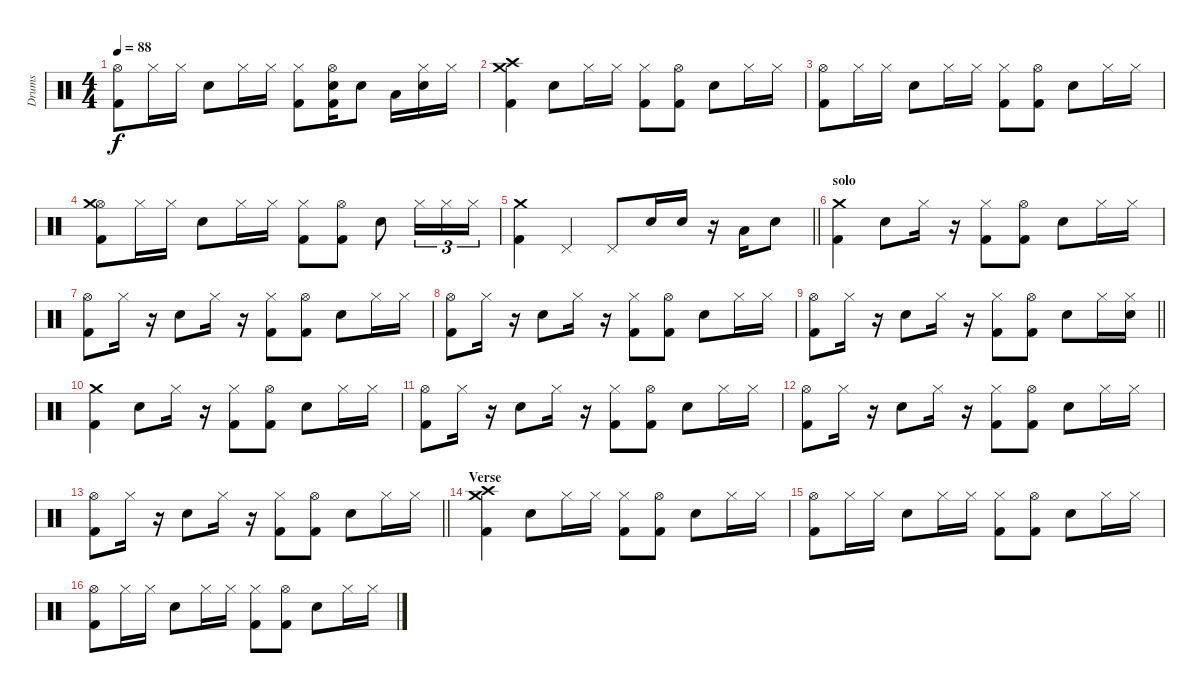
\track ("Drums" "Drums") {instrument percussion}
\staff {score}
\articulation defaults
\ts (4 4)
\tempo 88
\clef neutral
\ks c
("Hi-Hat (open)" "Kick (hit) 2").8{dy f} "Hi-Hat (closed)".16 "Hi-Hat (closed)".16 "Electric Snare (hit)".8 "Hi-Hat (closed)".16 "Hi-Hat (closed)".16 ("Hi-Hat (closed)" "Kick (hit) 2").8 ("Hi-Hat (open)" "Electric Snare (hit)" "Kick (hit) 2").16 "Electric Snare (hit)".8 "Low Tom (hit)".16 ("Hi-Hat (closed)" "Electric Snare (hit)").16 "Hi-Hat (closed)".16 |
("Crash medium (hit)" "Crash high (hit)" "Kick (hit) 2").4 "Electric Snare (hit)".8 "Hi-Hat (closed)".16 "Hi-Hat (closed)".16 ("Hi-Hat (closed)" "Kick (hit) 2").8 ("Hi-Hat (open)" "Kick (hit) 2").8 "Electric Snare (hit)".8 "Hi-Hat (closed)".16 "Hi-Hat (closed)".16 |
("Hi-Hat (open)" "Kick (hit) 2").8 "Hi-Hat (closed)".16 "Hi-Hat (closed)".16 "Electric Snare (hit)".8 "Hi-Hat (closed)".16 "Hi-Hat (closed)".16 ("Hi-Hat (closed)" "Kick (hit) 2").8 ("Hi-Hat (open)" "Kick (hit) 2").8 "Electric Snare (hit)".8 "Hi-Hat (closed)".16 "Hi-Hat (closed)".16 |
("Hi-Hat (open)" "Crash medium (hit)" "Kick (hit) 2").8 "Hi-Hat (closed)".16 "Hi-Hat (closed)".16 "Electric Snare (hit)".8 "Hi-Hat (closed)".16 "Hi-Hat (closed)".16 ("Hi-Hat (closed)" "Kick (hit) 2").8 ("Hi-Hat (open)" "Kick (hit) 2").8 "Electric Snare (hit)".8 "Hi-Hat (closed)".16{tu (3 2)} "Hi-Hat (closed)".16{tu (3 2)} "Hi-Hat (closed)".16{tu (3 2)} |
\barLineRight lightlight
("Crash medium (hit)" "Kick (hit) 2").4 "Pedal Hi-Hat (hit)".4 "Pedal Hi-Hat (hit)".8 "Electric Snare (hit)".16 "Electric Snare (hit)".16 r.16 "Low Tom (hit)".16 "Electric Snare (hit)".8 |
\section ("" "solo")
("Crash medium (hit)" "Kick (hit) 2").4 "Electric Snare (hit)".8 "Hi-Hat (closed)".16 r.16 ("Hi-Hat (closed)" "Kick (hit) 2").8 ("Hi-Hat (open)" "Kick (hit) 2").8 "Electric Snare (hit)".8 "Hi-Hat (closed)".16 "Hi-Hat (closed)".16 |
("Hi-Hat (open)" "Kick (hit) 2").8 "Hi-Hat (closed)".16 r.16 "Electric Snare (hit)".8 "Hi-Hat (closed)".16 r.16 ("Hi-Hat (closed)" "Kick (hit) 2").8 ("Hi-Hat (open)" "Kick (hit) 2").8 "Electric Snare (hit)".8 "Hi-Hat (closed)".16 "Hi-Hat (closed)".16 |
("Hi-Hat (open)" "Kick (hit) 2").8 "Hi-Hat (closed)".16 r.16 "Electric Snare (hit)".8 "Hi-Hat (closed)".16 r.16 ("Hi-Hat (closed)" "Kick (hit) 2").8 ("Hi-Hat (open)" "Kick (hit) 2").8 "Electric Snare (hit)".8 "Hi-Hat (closed)".16 "Hi-Hat (closed)".16 |
\barLineRight lightlight
("Hi-Hat (open)" "Kick (hit) 2").8 "Hi-Hat (closed)".16 r.16 "Electric Snare (hit)".8 "Hi-Hat (closed)".16 r.16 ("Hi-Hat (closed)" "Kick (hit) 2").8 ("Hi-Hat (open)" "Kick (hit) 2").8 "Electric Snare (hit)".8 "Hi-Hat (closed)".16 ("Hi-Hat (closed)" "Electric Snare (hit)").16 |
("Crash medium (hit)" "Kick (hit) 2").4 "Electric Snare (hit)".8 "Hi-Hat (closed)".16 r.16 ("Hi-Hat (closed)" "Kick (hit) 2").8 ("Hi-Hat (open)" "Kick (hit) 2").8 "Electric Snare (hit)".8 "Hi-Hat (closed)".16 "Hi-Hat (closed)".16 |
("Hi-Hat (open)" "Kick (hit) 2").8 "Hi-Hat (closed)".16 r.16 "Electric Snare (hit)".8 "Hi-Hat (closed)".16 r.16 ("Hi-Hat (closed)" "Kick (hit) 2").8 ("Hi-Hat (open)" "Kick (hit) 2").8 "Electric Snare (hit)".8 "Hi-Hat (closed)".16 "Hi-Hat (closed)".16 |
("Hi-Hat (open)" "Kick (hit) 2").8 "Hi-Hat (closed)".16 r.16 "Electric Snare (hit)".8 "Hi-Hat (closed)".16 r.16 ("Hi-Hat (closed)" "Kick (hit) 2").8 ("Hi-Hat (open)" "Kick (hit) 2").8 "Electric Snare (hit)".8 "Hi-Hat (closed)".16 "Hi-Hat (closed)".16 |
\barLineRight lightlight
("Hi-Hat (open)" "Kick (hit) 2").8 "Hi-Hat (closed)".16 r.16 "Electric Snare (hit)".8 "Hi-Hat (closed)".16 r.16 ("Hi-Hat (closed)" "Kick (hit) 2").8 ("Hi-Hat (open)" "Kick (hit) 2").8 "Electric Snare (hit)".8 "Hi-Hat (closed)".16 "Hi-Hat (closed)".16 |
\section ("" "Verse")
("Crash medium (hit)" "Crash high (hit)" "Kick (hit) 2").4 "Electric Snare (hit)".8 "Hi-Hat (closed)".16 "Hi-Hat (closed)".16 ("Hi-Hat (closed)" "Kick (hit) 2").8 ("Hi-Hat (open)" "Kick (hit) 2").8 "Electric Snare (hit)".8 "Hi-Hat (closed)".16 "Hi-Hat (closed)".16 |
("Hi-Hat (open)" "Kick (hit) 2").8 "Hi-Hat (closed)".16 "Hi-Hat (closed)".16 "Electric Snare (hit)".8 "Hi-Hat (closed)".16 "Hi-Hat (closed)".16 ("Hi-Hat (closed)" "Kick (hit) 2").8 ("Hi-Hat (open)" "Kick (hit) 2").8 "Electric Snare (hit)".8 "Hi-Hat (closed)".16 "Hi-Hat (closed)".16 |
("Hi-Hat (open)" "Kick (hit) 2").8 "Hi-Hat (closed)".16 "Hi-Hat (closed)".16 "Electric Snare (hit)".8 "Hi-Hat (closed)".16 "Hi-Hat (closed)".16 ("Hi-Hat (closed)" "Kick (hit) 2").8 ("Hi-Hat (open)" "Kick (hit) 2").8 "Electric Snare (hit)".8 "Hi-Hat (closed)".16 "Hi-Hat (closed)".16
